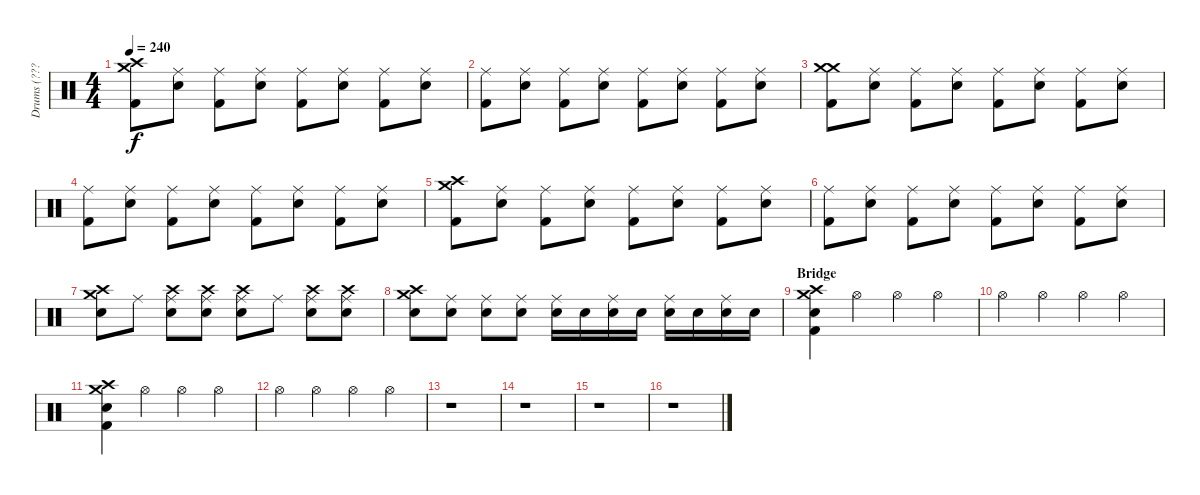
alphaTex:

\track ("Drums (????)" "Drums (???") {instrument percussion}
\staff {score}
\articulation defaults
\ts (4 4)
\tempo 240
\clef neutral
\ks c
("Crash medium (hit)" "Crash high (hit)" "Kick (hit) 2").8{dy f} ("Ride (middle)" "Snare (hit) 2").8 ("Ride (middle)" "Kick (hit) 2").8 ("Ride (middle)" "Snare (hit) 2").8 ("Ride (middle)" "Kick (hit) 2").8 ("Ride (middle)" "Snare (hit) 2").8 ("Ride (middle)" "Kick (hit) 2").8 ("Ride (middle)" "Snare (hit) 2").8 |
("Ride (middle)" "Kick (hit) 2").8 ("Ride (middle)" "Snare (hit) 2").8 ("Ride (middle)" "Kick (hit) 2").8 ("Ride (middle)" "Snare (hit) 2").8 ("Ride (middle)" "Kick (hit) 2").8 ("Ride (middle)" "Snare (hit) 2").8 ("Ride (middle)" "Kick (hit) 2").8 ("Ride (middle)" "Snare (hit) 2").8 |
("Crash medium (hit)" "Crash medium (hit)" "Kick (hit) 2").8 ("Ride (middle)" "Snare (hit) 2").8 ("Ride (middle)" "Kick (hit) 2").8 ("Ride (middle)" "Snare (hit) 2").8 ("Ride (middle)" "Kick (hit) 2").8 ("Ride (middle)" "Snare (hit) 2").8 ("Ride (middle)" "Kick (hit) 2").8 ("Ride (middle)" "Snare (hit) 2").8 |
("Ride (middle)" "Kick (hit) 2").8 ("Ride (middle)" "Snare (hit) 2").8 ("Ride (middle)" "Kick (hit) 2").8 ("Ride (middle)" "Snare (hit) 2").8 ("Ride (middle)" "Kick (hit) 2").8 ("Ride (middle)" "Snare (hit) 2").8 ("Ride (middle)" "Kick (hit) 2").8 ("Ride (middle)" "Snare (hit) 2").8 |
("Crash medium (hit)" "Crash high (hit)" "Kick (hit) 2").8 ("Ride (middle)" "Snare (hit) 2").8 ("Ride (middle)" "Kick (hit) 2").8 ("Ride (middle)" "Snare (hit) 2").8 ("Ride (middle)" "Kick (hit) 2").8 ("Ride (middle)" "Snare (hit) 2").8 ("Ride (middle)" "Kick (hit) 2").8 ("Ride (middle)" "Snare (hit) 2").8 |
("Ride (middle)" "Kick (hit) 2").8 ("Ride (middle)" "Snare (hit) 2").8 ("Ride (middle)" "Kick (hit) 2").8 ("Ride (middle)" "Snare (hit) 2").8 ("Ride (middle)" "Kick (hit) 2").8 ("Ride (middle)" "Snare (hit) 2").8 ("Ride (middle)" "Kick (hit) 2").8 ("Ride (middle)" "Snare (hit) 2").8 |
("Crash medium (hit)" "Crash high (hit)" "Snare (hit) 2").8 "Ride (middle)".8 ("Ride (middle)" "Crash high (hit)" "Snare (hit) 2").8 ("Ride (middle)" "Crash high (hit)" "Snare (hit) 2").8 ("Ride (middle)" "Crash high (hit)" "Snare (hit) 2").8 "Ride (middle)".8 ("Ride (middle)" "Crash high (hit)" "Snare (hit) 2").8 ("Ride (middle)" "Crash high (hit)" "Snare (hit) 2").8 |
("Crash medium (hit)" "Crash high (hit)" "Snare (hit) 2").8 ("Ride (middle)" "Snare (hit) 2").8 ("Ride (middle)" "Snare (hit) 2").8 ("Ride (middle)" "Snare (hit) 2").8 ("Ride (middle)" "Snare (hit) 2").16 "Snare (hit) 2".16 ("Ride (middle)" "Snare (hit) 2").16 "Snare (hit) 2".16 ("Ride (middle)" "Snare (hit) 2").16 "Snare (hit) 2".16 ("Ride (middle)" "Snare (hit) 2").16 "Snare (hit) 2".16 |
\section ("" "Bridge")
("Crash medium (hit)" "Crash high (hit)" "Kick (hit) 2" "Snare (hit) 2").4 "Hi-Hat (open)".4 "Hi-Hat (open)".4 "Hi-Hat (open)".4 |
"Hi-Hat (open)".4 "Hi-Hat (open)".4 "Hi-Hat (open)".4 "Hi-Hat (open)".4 |
("Crash medium (hit)" "Crash high (hit)" "Kick (hit) 2" "Snare (hit) 2").4 "Hi-Hat (open)".4 "Hi-Hat (open)".4 "Hi-Hat (open)".4 |
"Hi-Hat (open)".4 "Hi-Hat (open)".4 "Hi-Hat (open)".4 "Hi-Hat (open)".4 |
r.1 |
r.1 |
r.1 |
r.1
